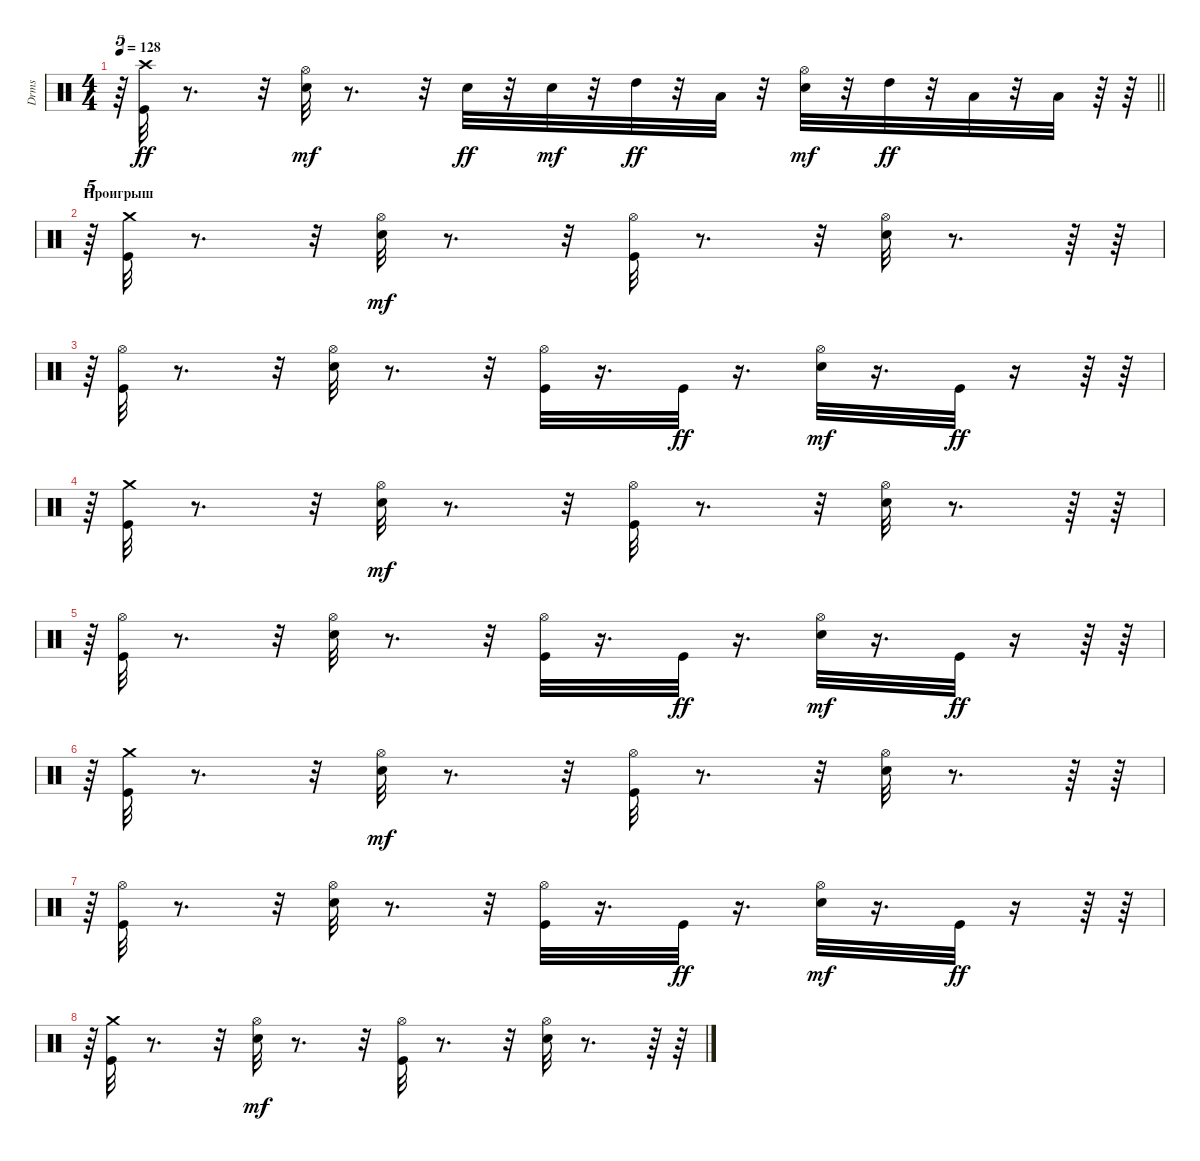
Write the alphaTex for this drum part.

\track ("Drms" "Drms") {instrument percussion}
\staff {score}
\articulation defaults
\ts (4 4)
\tempo 128
\clef neutral
\barLineRight lightlight
\ks c
r.64{tu (5 4) dy ff} ("Kick (hit)" "Crash high (hit)").32 r.8{d} r.32 ("Snare (hit) 2" "Hi-Hat (open)").32{dy mf} r.8{d} r.32 "Snare (hit) 2".32{dy ff} r.32 "Snare (hit) 2".32{dy mf} r.32 "High Tom (hit)".32{dy ff} r.32 "Low Tom (hit)".32 r.32 ("Snare (hit) 2" "Hi-Hat (open)").32{dy mf} r.32 "High Tom (hit)".32{dy ff} r.32 "Low Tom (hit)".32 r.32 "Low Floor Tom (hit)".32 r.64 r.64 |
\section ("" "Проигрыш")
r.64{tu (5 4)} ("Kick (hit)" "Crash medium (hit)").32 r.8{d} r.32 ("Snare (hit) 2" "Hi-Hat (open)").32{dy mf} r.8{d} r.32 ("Kick (hit)" "Hi-Hat (open)").32 r.8{d} r.32 ("Snare (hit) 2" "Hi-Hat (open)").32 r.8{d} r.64 r.64 |
r.64{tu (5 4)} ("Kick (hit)" "Hi-Hat (open)").32 r.8{d} r.32 ("Snare (hit) 2" "Hi-Hat (open)").32 r.8{d} r.32 ("Kick (hit)" "Hi-Hat (open)").32 r.16{d} "Kick (hit)".32{dy ff} r.16{d} ("Snare (hit) 2" "Hi-Hat (open)").32{dy mf} r.16{d} "Kick (hit)".32{dy ff} r.16 r.64 r.64 |
r.64{tu (5 4)} ("Kick (hit)" "Crash medium (hit)").32 r.8{d} r.32 ("Snare (hit) 2" "Hi-Hat (open)").32{dy mf} r.8{d} r.32 ("Kick (hit)" "Hi-Hat (open)").32 r.8{d} r.32 ("Snare (hit) 2" "Hi-Hat (open)").32 r.8{d} r.64 r.64 |
r.64{tu (5 4)} ("Kick (hit)" "Hi-Hat (open)").32 r.8{d} r.32 ("Snare (hit) 2" "Hi-Hat (open)").32 r.8{d} r.32 ("Kick (hit)" "Hi-Hat (open)").32 r.16{d} "Kick (hit)".32{dy ff} r.16{d} ("Snare (hit) 2" "Hi-Hat (open)").32{dy mf} r.16{d} "Kick (hit)".32{dy ff} r.16 r.64 r.64 |
r.64{tu (5 4)} ("Kick (hit)" "Crash medium (hit)").32 r.8{d} r.32 ("Snare (hit) 2" "Hi-Hat (open)").32{dy mf} r.8{d} r.32 ("Kick (hit)" "Hi-Hat (open)").32 r.8{d} r.32 ("Snare (hit) 2" "Hi-Hat (open)").32 r.8{d} r.64 r.64 |
r.64{tu (5 4)} ("Kick (hit)" "Hi-Hat (open)").32 r.8{d} r.32 ("Snare (hit) 2" "Hi-Hat (open)").32 r.8{d} r.32 ("Kick (hit)" "Hi-Hat (open)").32 r.16{d} "Kick (hit)".32{dy ff} r.16{d} ("Snare (hit) 2" "Hi-Hat (open)").32{dy mf} r.16{d} "Kick (hit)".32{dy ff} r.16 r.64 r.64 |
r.64{tu (5 4)} ("Kick (hit)" "Crash medium (hit)").32 r.8{d} r.32 ("Snare (hit) 2" "Hi-Hat (open)").32{dy mf} r.8{d} r.32 ("Kick (hit)" "Hi-Hat (open)").32 r.8{d} r.32 ("Snare (hit) 2" "Hi-Hat (open)").32 r.8{d} r.64 r.64
